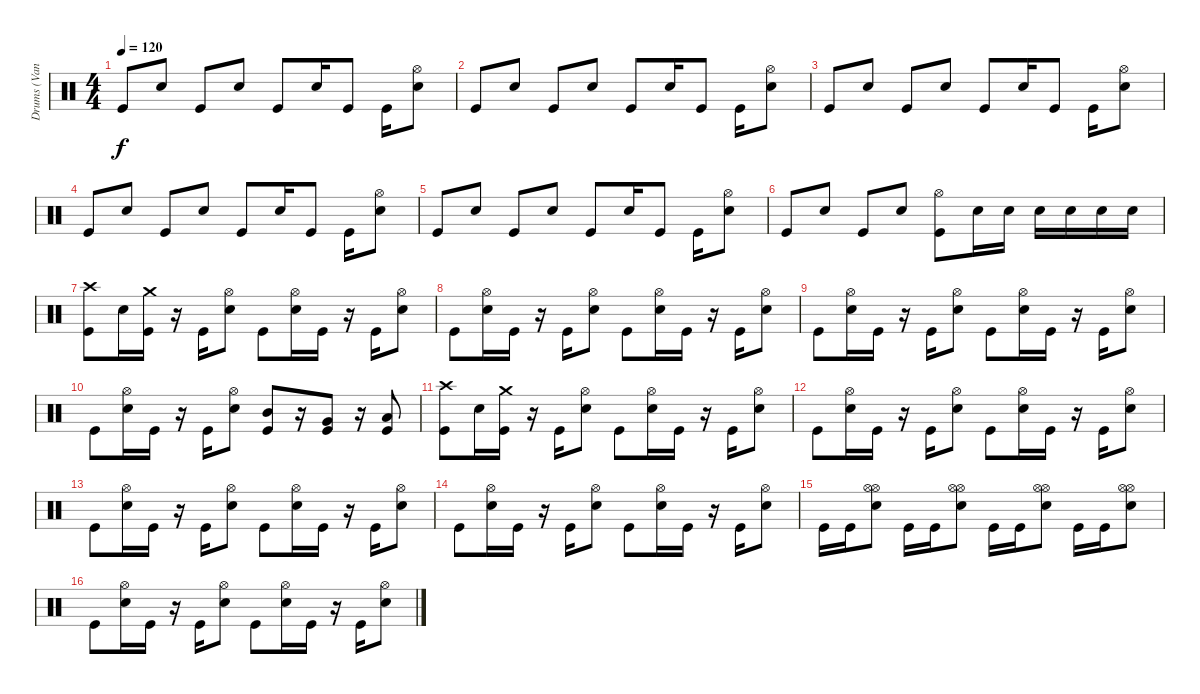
\track ("Drums (Vandel)" "Drums (Van") {instrument percussion}
\staff {score}
\articulation defaults
\ts (4 4)
\tempo 120
\clef neutral
\ks c "Kick (hit)".8{dy f} "Snare (hit) 2".8 "Kick (hit)".8 "Snare (hit) 2".8 "Kick (hit)".8 "Snare (hit) 2".16 "Kick (hit)".8 "Kick (hit)".16
("Hi-Hat (open)" "Snare (hit) 2").8 |
"Kick (hit)".8 "Snare (hit) 2".8 "Kick (hit)".8 "Snare (hit) 2".8 "Kick (hit)".8 "Snare (hit) 2".16 "Kick (hit)".8 "Kick (hit)".16 ("Hi-Hat (open)" "Snare (hit) 2").8 |
"Kick (hit)".8 "Snare (hit) 2".8 "Kick (hit)".8 "Snare (hit) 2".8 "Kick (hit)".8 "Snare (hit) 2".16 "Kick (hit)".8 "Kick (hit)".16 ("Hi-Hat (open)" "Snare (hit) 2").8 |
"Kick (hit)".8 "Snare (hit) 2".8 "Kick (hit)".8 "Snare (hit) 2".8 "Kick (hit)".8 "Snare (hit) 2".16 "Kick (hit)".8 "Kick (hit)".16 ("Hi-Hat (open)" "Snare (hit) 2").8 |
"Kick (hit)".8 "Snare (hit) 2".8 "Kick (hit)".8 "Snare (hit) 2".8 "Kick (hit)".8 "Snare (hit) 2".16 "Kick (hit)".8 "Kick (hit)".16 ("Hi-Hat (open)" "Snare (hit) 2").8 |
"Kick (hit)".8 "Snare (hit) 2".8 "Kick (hit)".8 "Snare (hit) 2".8 ("Hi-Hat (open)" "Kick (hit)").8 "Snare (hit) 2".16 "Snare (hit) 2".16 "Snare (hit) 2".16 "Snare (hit) 2".16 "Snare (hit) 2".16 "Snare (hit) 2".16 |
("Crash high (hit)" "Kick (hit)").8 "Snare (hit) 2".16 ("Crash medium (hit)" "Kick (hit)").16 r.16 "Kick (hit)".16 ("Hi-Hat (open)" "Snare (hit) 2").8 "Kick (hit)".8 ("Hi-Hat (open)" "Snare (hit) 2").16 "Kick (hit)".16 r.16 "Kick (hit)".16 ("Hi-Hat (open)" "Snare (hit) 2").8 |
"Kick (hit)".8 ("Hi-Hat (open)" "Snare (hit) 2").16 "Kick (hit)".16 r.16 "Kick (hit)".16 ("Hi-Hat (open)" "Snare (hit) 2").8 "Kick (hit)".8 ("Hi-Hat (open)" "Snare (hit) 2").16 "Kick (hit)".16 r.16 "Kick (hit)".16 ("Hi-Hat (open)" "Snare (hit) 2").8 |
"Kick (hit)".8 ("Hi-Hat (open)" "Snare (hit) 2").16 "Kick (hit)".16 r.16 "Kick (hit)".16 ("Hi-Hat (open)" "Snare (hit) 2").8 "Kick (hit)".8 ("Hi-Hat (open)" "Snare (hit) 2").16 "Kick (hit)".16 r.16 "Kick (hit)".16 ("Hi-Hat (open)" "Snare (hit) 2").8 |
"Kick (hit)".8 ("Hi-Hat (open)" "Snare (hit) 2").16 "Kick (hit)".16 r.16 "Kick (hit)".16 ("Hi-Hat (open)" "Snare (hit) 2").8 ("Mid Tom (hit)" "Kick (hit)").8 r.16 ("Very Low Tom (hit)" "Kick (hit)").8 r.16 ("Low Floor Tom (hit)" "Kick (hit)").8 |
("Crash high (hit)" "Kick (hit)").8 "Snare (hit) 2".16 ("Crash medium (hit)" "Kick (hit)").16 r.16 "Kick (hit)".16 ("Hi-Hat (open)" "Snare (hit) 2").8 "Kick (hit)".8 ("Hi-Hat (open)" "Snare (hit) 2").16 "Kick (hit)".16 r.16 "Kick (hit)".16 ("Hi-Hat (open)" "Snare (hit) 2").8 |
"Kick (hit)".8 ("Hi-Hat (open)" "Snare (hit) 2").16 "Kick (hit)".16 r.16 "Kick (hit)".16 ("Hi-Hat (open)" "Snare (hit) 2").8 "Kick (hit)".8 ("Hi-Hat (open)" "Snare (hit) 2").16 "Kick (hit)".16 r.16 "Kick (hit)".16 ("Hi-Hat (open)" "Snare (hit) 2").8 |
"Kick (hit)".8 ("Hi-Hat (open)" "Snare (hit) 2").16 "Kick (hit)".16 r.16 "Kick (hit)".16 ("Hi-Hat (open)" "Snare (hit) 2").8 "Kick (hit)".8 ("Hi-Hat (open)" "Snare (hit) 2").16 "Kick (hit)".16 r.16 "Kick (hit)".16 ("Hi-Hat (open)" "Snare (hit) 2").8 |
"Kick (hit)".8 ("Hi-Hat (open)" "Snare (hit) 2").16 "Kick (hit)".16 r.16 "Kick (hit)".16 ("Hi-Hat (open)" "Snare (hit) 2").8 "Kick (hit)".8 ("Hi-Hat (open)" "Snare (hit) 2").16 "Kick (hit)".16 r.16 "Kick (hit)".16 ("Hi-Hat (open)" "Snare (hit) 2").8 |
"Kick (hit)".16 "Kick (hit)".16 ("Hi-Hat (open)" "Hi-Hat (open)" "Snare (hit) 2").8 "Kick (hit)".16 "Kick (hit)".16 ("Hi-Hat (open)" "Hi-Hat (open)" "Snare (hit) 2").8 "Kick (hit)".16 "Kick (hit)".16 ("Hi-Hat (open)" "Hi-Hat (open)" "Snare (hit) 2").8 "Kick (hit)".16 "Kick (hit)".16 ("Hi-Hat (open)" "Hi-Hat (open)" "Snare (hit) 2").8 |
"Kick (hit)".8 ("Hi-Hat (open)" "Snare (hit) 2").16 "Kick (hit)".16 r.16 "Kick (hit)".16 ("Hi-Hat (open)" "Snare (hit) 2").8 "Kick (hit)".8 ("Hi-Hat (open)" "Snare (hit) 2").16 "Kick (hit)".16 r.16 "Kick (hit)".16 ("Hi-Hat (open)" "Snare (hit) 2").8
